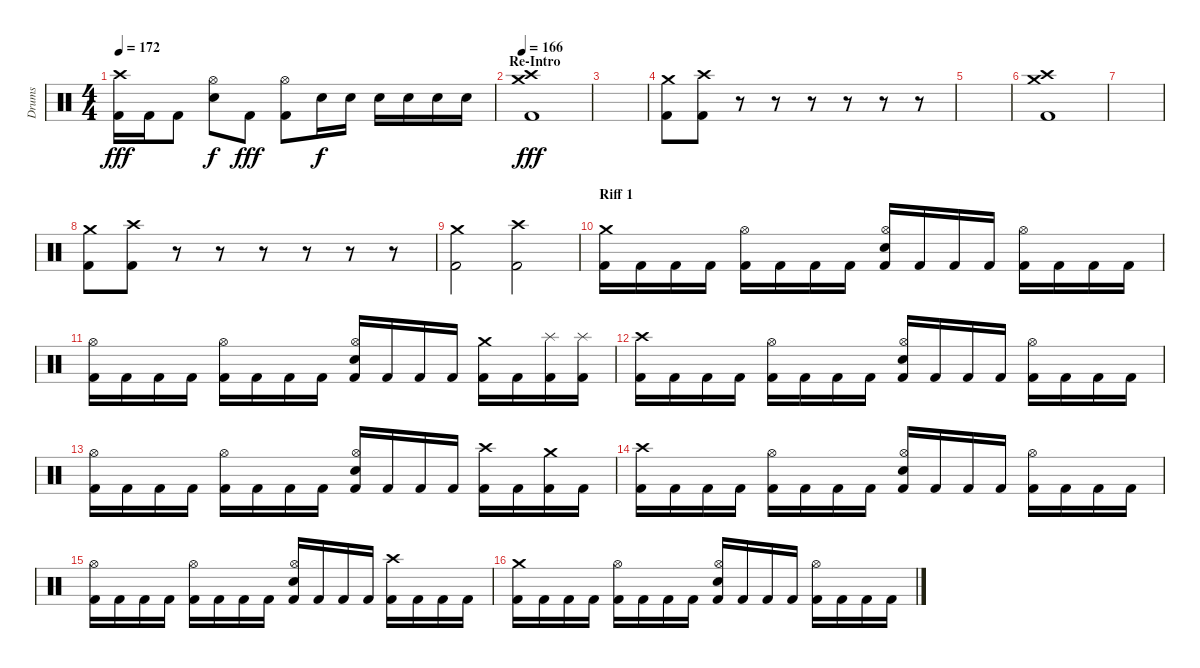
\track ("Drums" "Drums") {instrument percussion}
\staff {score}
\articulation defaults
\ts (4 4)
\tempo 172
\clef neutral
\ks c
("Crash high (hit)" "Kick (hit) 2").16{dy fff} "Kick (hit) 2".16 "Kick (hit) 2".8 ("Hi-Hat (open)" "Electric Snare (hit)").8{dy f} "Kick (hit) 2".8{dy fff} ("Hi-Hat (open)" "Kick (hit) 2").8 "Electric Snare (hit)".16{dy f} "Electric Snare (hit)".16 "Electric Snare (hit)".16 "Electric Snare (hit)".16 "Electric Snare (hit)".16 "Electric Snare (hit)".16 |
\section ("" "Re-Intro")
\tempo 166
("Crash medium (hit)" "Crash high (hit)" "Kick (hit) 2").1{dy fff} |
|
("Crash medium (hit)" "Kick (hit) 2").8 ("Crash high (hit)" "Kick (hit) 2").8 r.8{volume 0} r.8 r.8 r.8 r.8 r.8 |
|
("Crash medium (hit)" "Crash high (hit)" "Kick (hit) 2").1{volume 16} |
|
("Crash medium (hit)" "Kick (hit) 2").8 ("Crash high (hit)" "Kick (hit) 2").8 r.8{volume 0} r.8 r.8 r.8 r.8 r.8 |
("Crash medium (hit)" "Kick (hit) 2").2{volume 16} ("Crash high (hit)" "Kick (hit) 2").2 |
\section ("" "Riff 1")
("Crash medium (hit)" "Kick (hit) 2").16 "Kick (hit) 2".16 "Kick (hit) 2".16 "Kick (hit) 2".16 ("Hi-Hat (open)" "Kick (hit) 2").16 "Kick (hit) 2".16 "Kick (hit) 2".16 "Kick (hit) 2".16 ("Hi-Hat (open)" "Electric Snare (hit)" "Kick (hit) 2").16 "Kick (hit) 2".16 "Kick (hit) 2".16 "Kick (hit) 2".16 ("Hi-Hat (open)" "Kick (hit) 2").16 "Kick (hit) 2".16 "Kick (hit) 2".16 "Kick (hit) 2".16 |
("Hi-Hat (open)" "Kick (hit) 2").16 "Kick (hit) 2".16 "Kick (hit) 2".16 "Kick (hit) 2".16 ("Hi-Hat (open)" "Kick (hit) 2").16 "Kick (hit) 2".16 "Kick (hit) 2".16 "Kick (hit) 2".16 ("Hi-Hat (open)" "Electric Snare (hit)" "Kick (hit) 2").16 "Kick (hit) 2".16 "Kick (hit) 2".16 "Kick (hit) 2".16 ("Crash medium (hit)" "Kick (hit) 2").16 "Kick (hit) 2".16 ("Splash (hit)" "Kick (hit) 2").16 ("Splash (hit)" "Kick (hit) 2").16 |
("Crash high (hit)" "Kick (hit) 2").16 "Kick (hit) 2".16 "Kick (hit) 2".16 "Kick (hit) 2".16 ("Hi-Hat (open)" "Kick (hit) 2").16 "Kick (hit) 2".16 "Kick (hit) 2".16 "Kick (hit) 2".16 ("Hi-Hat (open)" "Electric Snare (hit)" "Kick (hit) 2").16 "Kick (hit) 2".16 "Kick (hit) 2".16 "Kick (hit) 2".16 ("Hi-Hat (open)" "Kick (hit) 2").16 "Kick (hit) 2".16 "Kick (hit) 2".16 "Kick (hit) 2".16 |
("Hi-Hat (open)" "Kick (hit) 2").16 "Kick (hit) 2".16 "Kick (hit) 2".16 "Kick (hit) 2".16 ("Hi-Hat (open)" "Kick (hit) 2").16 "Kick (hit) 2".16 "Kick (hit) 2".16 "Kick (hit) 2".16 ("Hi-Hat (open)" "Electric Snare (hit)" "Kick (hit) 2").16 "Kick (hit) 2".16 "Kick (hit) 2".16 "Kick (hit) 2".16 ("Crash high (hit)" "Kick (hit) 2").16 "Kick (hit) 2".16 ("Crash medium (hit)" "Kick (hit) 2").16 "Kick (hit) 2".16 |
("Crash high (hit)" "Kick (hit) 2").16 "Kick (hit) 2".16 "Kick (hit) 2".16 "Kick (hit) 2".16 ("Hi-Hat (open)" "Kick (hit) 2").16 "Kick (hit) 2".16 "Kick (hit) 2".16 "Kick (hit) 2".16 ("Hi-Hat (open)" "Electric Snare (hit)" "Kick (hit) 2").16 "Kick (hit) 2".16 "Kick (hit) 2".16 "Kick (hit) 2".16 ("Hi-Hat (open)" "Kick (hit) 2").16 "Kick (hit) 2".16 "Kick (hit) 2".16 "Kick (hit) 2".16 |
("Hi-Hat (open)" "Kick (hit) 2").16 "Kick (hit) 2".16 "Kick (hit) 2".16 "Kick (hit) 2".16 ("Hi-Hat (open)" "Kick (hit) 2").16 "Kick (hit) 2".16 "Kick (hit) 2".16 "Kick (hit) 2".16 ("Hi-Hat (open)" "Electric Snare (hit)" "Kick (hit) 2").16 "Kick (hit) 2".16 "Kick (hit) 2".16 "Kick (hit) 2".16 ("Crash high (hit)" "Kick (hit) 2").16 "Kick (hit) 2".16 "Kick (hit) 2".16 "Kick (hit) 2".16 |
("Crash medium (hit)" "Kick (hit) 2").16 "Kick (hit) 2".16 "Kick (hit) 2".16 "Kick (hit) 2".16 ("Hi-Hat (open)" "Kick (hit) 2").16 "Kick (hit) 2".16 "Kick (hit) 2".16 "Kick (hit) 2".16 ("Hi-Hat (open)" "Electric Snare (hit)" "Kick (hit) 2").16 "Kick (hit) 2".16 "Kick (hit) 2".16 "Kick (hit) 2".16 ("Hi-Hat (open)" "Kick (hit) 2").16 "Kick (hit) 2".16 "Kick (hit) 2".16 "Kick (hit) 2".16
